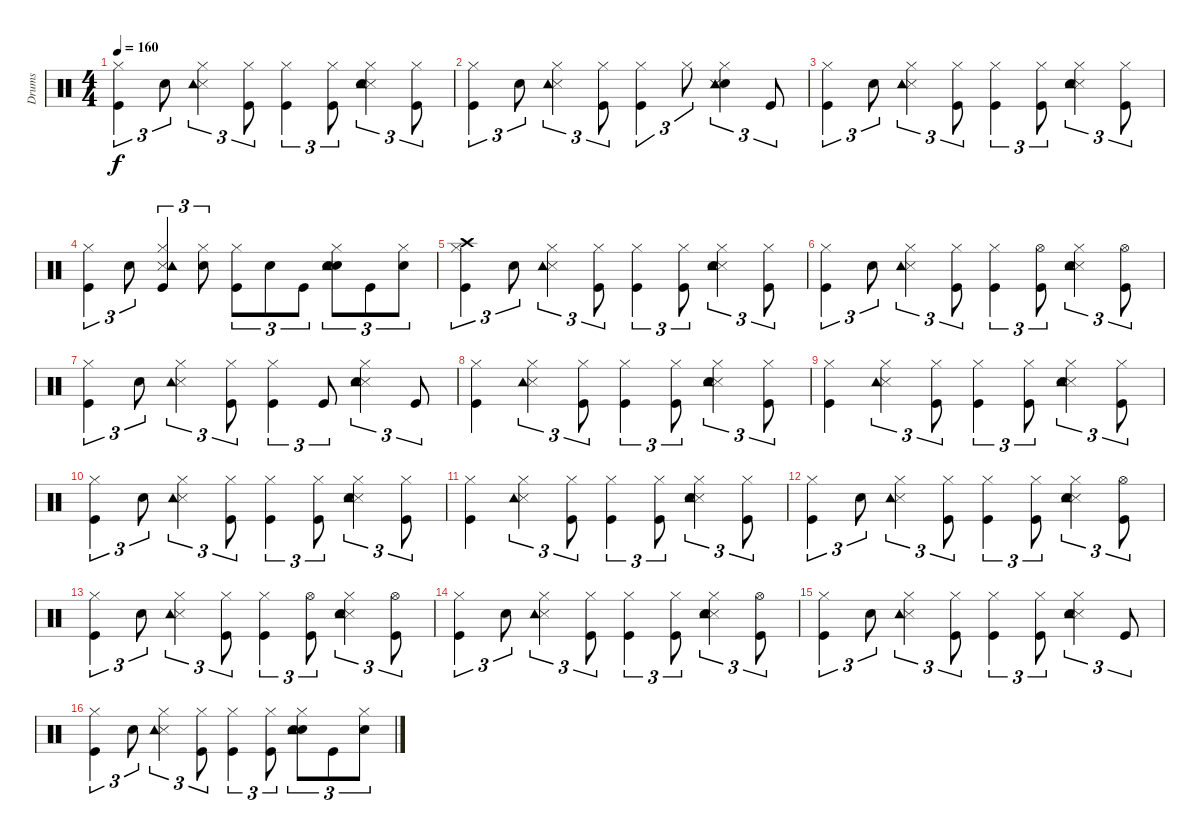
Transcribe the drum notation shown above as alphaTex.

\track ("Drums   " "Drums   ") {instrument percussion}
\staff {score}
\articulation defaults
\ts (4 4)
\tempo 160
\clef neutral
\ks c
("Kick (hit)" "Hi-Hat (closed)").4{tu (3 2) dy f} "Snare (hit) 2".8{tu (3 2)} ("Snare (side stick) 3" "Tambourine (hit)" "Hi-Hat (closed)").4{tu (3 2)} ("Kick (hit)" "Hi-Hat (closed)").8{tu (3 2)} ("Kick (hit)" "Hi-Hat (closed)").4{tu (3 2)} ("Kick (hit)" "Hi-Hat (closed)").8{tu (3 2)} ("Snare (side stick) 3" "Hand Clap (hit)" "Tambourine (hit)" "Hi-Hat (closed)").4{tu (3 2)} ("Kick (hit)" "Hi-Hat (closed)").8{tu (3 2)} |
("Kick (hit)" "Hi-Hat (closed)").4{tu (3 2)} "Snare (hit) 2".8{tu (3 2)} ("Snare (side stick) 3" "Tambourine (hit)" "Hi-Hat (closed)").4{tu (3 2)} ("Kick (hit)" "Hi-Hat (closed)").8{tu (3 2)} ("Kick (hit)" "Hi-Hat (closed)").4{tu (3 2)} "Hi-Hat (closed)".8{tu (3 2)} ("Hand Clap (hit)" "Snare (side stick) 3" "Tambourine (hit)" "Hi-Hat (closed)").4{tu (3 2)} "Kick (hit)".8{tu (3 2)} |
("Kick (hit)" "Hi-Hat (closed)").4{tu (3 2)} "Snare (hit) 2".8{tu (3 2)} ("Snare (side stick) 3" "Tambourine (hit)" "Hi-Hat (closed)").4{tu (3 2)} ("Kick (hit)" "Hi-Hat (closed)").8{tu (3 2)} ("Kick (hit)" "Hi-Hat (closed)").4{tu (3 2)} ("Kick (hit)" "Hi-Hat (closed)").8{tu (3 2)} ("Snare (side stick) 3" "Hand Clap (hit)" "Tambourine (hit)" "Hi-Hat (closed)").4{tu (3 2)} ("Kick (hit)" "Hi-Hat (closed)").8{tu (3 2)} |
("Kick (hit)" "Hi-Hat (closed)").4{tu (3 2)} "Snare (hit) 2".8{tu (3 2)} ("Kick (hit)" "Snare (side stick) 3" "Tambourine (hit)" "Hi-Hat (closed)").4{tu (3 2)} ("Snare (hit) 2" "Hi-Hat (closed)").8{tu (3 2)} ("Kick (hit)" "Hi-Hat (closed)").8{tu (3 2)} "Snare (hit) 2".8{tu (3 2)} "Kick (hit)".8{tu (3 2)} ("Snare (hit) 2" "Hand Clap (hit)" "Tambourine (hit)" "Hi-Hat (closed)").8{tu (3 2)} "Kick (hit)".8{tu (3 2)} ("Snare (hit) 2" "Hi-Hat (closed)").8{tu (3 2)} |
("Kick (hit)" "Crash high (hit)" "Hi-Hat (closed)").4{tu (3 2)} "Snare (hit) 2".8{tu (3 2)} ("Snare (side stick) 3" "Tambourine (hit)" "Hi-Hat (closed)").4{tu (3 2)} ("Kick (hit)" "Hi-Hat (closed)").8{tu (3 2)} ("Kick (hit)" "Hi-Hat (closed)").4{tu (3 2)} ("Kick (hit)" "Hi-Hat (closed)").8{tu (3 2)} ("Snare (side stick) 3" "Hand Clap (hit)" "Tambourine (hit)" "Hi-Hat (closed)").4{tu (3 2)} ("Kick (hit)" "Hi-Hat (closed)").8{tu (3 2)} |
("Kick (hit)" "Hi-Hat (closed)").4{tu (3 2)} "Snare (hit) 2".8{tu (3 2)} ("Snare (side stick) 3" "Tambourine (hit)" "Hi-Hat (closed)").4{tu (3 2)} ("Kick (hit)" "Hi-Hat (closed)").8{tu (3 2)} ("Kick (hit)" "Hi-Hat (closed)").4{tu (3 2)} ("Kick (hit)" "Hi-Hat (open)").8{tu (3 2)} ("Snare (side stick) 3" "Hand Clap (hit)" "Tambourine (hit)" "Hi-Hat (closed)").4{tu (3 2)} ("Kick (hit)" "Hi-Hat (open)").8{tu (3 2)} |
("Kick (hit)" "Hi-Hat (closed)").4{tu (3 2)} "Snare (hit) 2".8{tu (3 2)} ("Snare (side stick) 3" "Tambourine (hit)" "Hi-Hat (closed)").4{tu (3 2)} ("Kick (hit)" "Hi-Hat (closed)").8{tu (3 2)} ("Kick (hit)" "Hi-Hat (closed)").4{tu (3 2)} "Kick (hit)".8{tu (3 2)} ("Snare (side stick) 3" "Hand Clap (hit)" "Tambourine (hit)" "Hi-Hat (closed)").4{tu (3 2)} "Kick (hit)".8{tu (3 2)} |
("Kick (hit)" "Hi-Hat (closed)").4 ("Snare (side stick) 3" "Tambourine (hit)" "Hi-Hat (closed)").4{tu (3 2)} ("Kick (hit)" "Hi-Hat (closed)").8{tu (3 2)} ("Kick (hit)" "Hi-Hat (closed)").4{tu (3 2)} ("Kick (hit)" "Hi-Hat (closed)").8{tu (3 2)} ("Snare (side stick) 3" "Hand Clap (hit)" "Tambourine (hit)" "Hi-Hat (closed)").4{tu (3 2)} ("Kick (hit)" "Hi-Hat (closed)").8{tu (3 2)} |
("Kick (hit)" "Hi-Hat (closed)").4 ("Snare (side stick) 3" "Tambourine (hit)" "Hi-Hat (closed)").4{tu (3 2)} ("Kick (hit)" "Hi-Hat (closed)").8{tu (3 2)} ("Kick (hit)" "Hi-Hat (closed)").4{tu (3 2)} ("Kick (hit)" "Hi-Hat (closed)").8{tu (3 2)} ("Snare (side stick) 3" "Hand Clap (hit)" "Tambourine (hit)" "Hi-Hat (closed)").4{tu (3 2)} ("Kick (hit)" "Hi-Hat (closed)").8{tu (3 2)} |
("Kick (hit)" "Hi-Hat (closed)").4{tu (3 2)} "Snare (hit) 2".8{tu (3 2)} ("Snare (side stick) 3" "Tambourine (hit)" "Hi-Hat (closed)").4{tu (3 2)} ("Kick (hit)" "Hi-Hat (closed)").8{tu (3 2)} ("Kick (hit)" "Hi-Hat (closed)").4{tu (3 2)} ("Kick (hit)" "Hi-Hat (closed)").8{tu (3 2)} ("Snare (side stick) 3" "Hand Clap (hit)" "Tambourine (hit)" "Hi-Hat (closed)").4{tu (3 2)} ("Kick (hit)" "Hi-Hat (closed)").8{tu (3 2)} |
("Kick (hit)" "Hi-Hat (closed)").4 ("Snare (side stick) 3" "Tambourine (hit)" "Hi-Hat (closed)").4{tu (3 2)} ("Kick (hit)" "Hi-Hat (closed)").8{tu (3 2)} ("Kick (hit)" "Hi-Hat (closed)").4{tu (3 2)} ("Kick (hit)" "Hi-Hat (closed)").8{tu (3 2)} ("Snare (side stick) 3" "Hand Clap (hit)" "Tambourine (hit)" "Hi-Hat (closed)").4{tu (3 2)} ("Kick (hit)" "Hi-Hat (closed)").8{tu (3 2)} |
("Kick (hit)" "Hi-Hat (closed)").4{tu (3 2)} "Snare (hit) 2".8{tu (3 2)} ("Snare (side stick) 3" "Tambourine (hit)" "Hi-Hat (closed)").4{tu (3 2)} ("Kick (hit)" "Hi-Hat (closed)").8{tu (3 2)} ("Kick (hit)" "Hi-Hat (closed)").4{tu (3 2)} ("Kick (hit)" "Hi-Hat (closed)").8{tu (3 2)} ("Snare (side stick) 3" "Hand Clap (hit)" "Tambourine (hit)" "Hi-Hat (closed)").4{tu (3 2)} ("Kick (hit)" "Hi-Hat (open)").8{tu (3 2)} |
("Kick (hit)" "Hi-Hat (closed)").4{tu (3 2)} "Snare (hit) 2".8{tu (3 2)} ("Snare (side stick) 3" "Tambourine (hit)" "Hi-Hat (closed)").4{tu (3 2)} ("Kick (hit)" "Hi-Hat (closed)").8{tu (3 2)} ("Kick (hit)" "Hi-Hat (closed)").4{tu (3 2)} ("Kick (hit)" "Hi-Hat (open)").8{tu (3 2)} ("Snare (side stick) 3" "Hand Clap (hit)" "Tambourine (hit)" "Hi-Hat (closed)").4{tu (3 2)} ("Kick (hit)" "Hi-Hat (open)").8{tu (3 2)} |
("Kick (hit)" "Hi-Hat (closed)").4{tu (3 2)} "Snare (hit) 2".8{tu (3 2)} ("Snare (side stick) 3" "Tambourine (hit)" "Hi-Hat (closed)").4{tu (3 2)} ("Kick (hit)" "Hi-Hat (closed)").8{tu (3 2)} ("Kick (hit)" "Hi-Hat (closed)").4{tu (3 2)} ("Kick (hit)" "Hi-Hat (closed)").8{tu (3 2)} ("Snare (side stick) 3" "Hand Clap (hit)" "Tambourine (hit)" "Hi-Hat (closed)").4{tu (3 2)} ("Kick (hit)" "Hi-Hat (open)").8{tu (3 2)} |
("Kick (hit)" "Hi-Hat (closed)").4{tu (3 2)} "Snare (hit) 2".8{tu (3 2)} ("Snare (side stick) 3" "Tambourine (hit)" "Hi-Hat (closed)").4{tu (3 2)} ("Kick (hit)" "Hi-Hat (closed)").8{tu (3 2)} ("Kick (hit)" "Hi-Hat (closed)").4{tu (3 2)} ("Kick (hit)" "Hi-Hat (closed)").8{tu (3 2)} ("Snare (side stick) 3" "Hand Clap (hit)" "Tambourine (hit)" "Hi-Hat (closed)").4{tu (3 2)} "Kick (hit)".8{tu (3 2)} |
("Kick (hit)" "Hi-Hat (closed)").4{tu (3 2)} "Snare (hit) 2".8{tu (3 2)} ("Snare (side stick) 3" "Tambourine (hit)" "Hi-Hat (closed)").4{tu (3 2)} ("Kick (hit)" "Hi-Hat (closed)").8{tu (3 2)} ("Kick (hit)" "Hi-Hat (closed)").4{tu (3 2)} ("Kick (hit)" "Hi-Hat (closed)").8{tu (3 2)} ("Snare (hit) 2" "Hand Clap (hit)" "Tambourine (hit)" "Hi-Hat (closed)").8{tu (3 2)} "Kick (hit)".8{tu (3 2)} ("Snare (hit) 2" "Hi-Hat (closed)").8{tu (3 2)}
